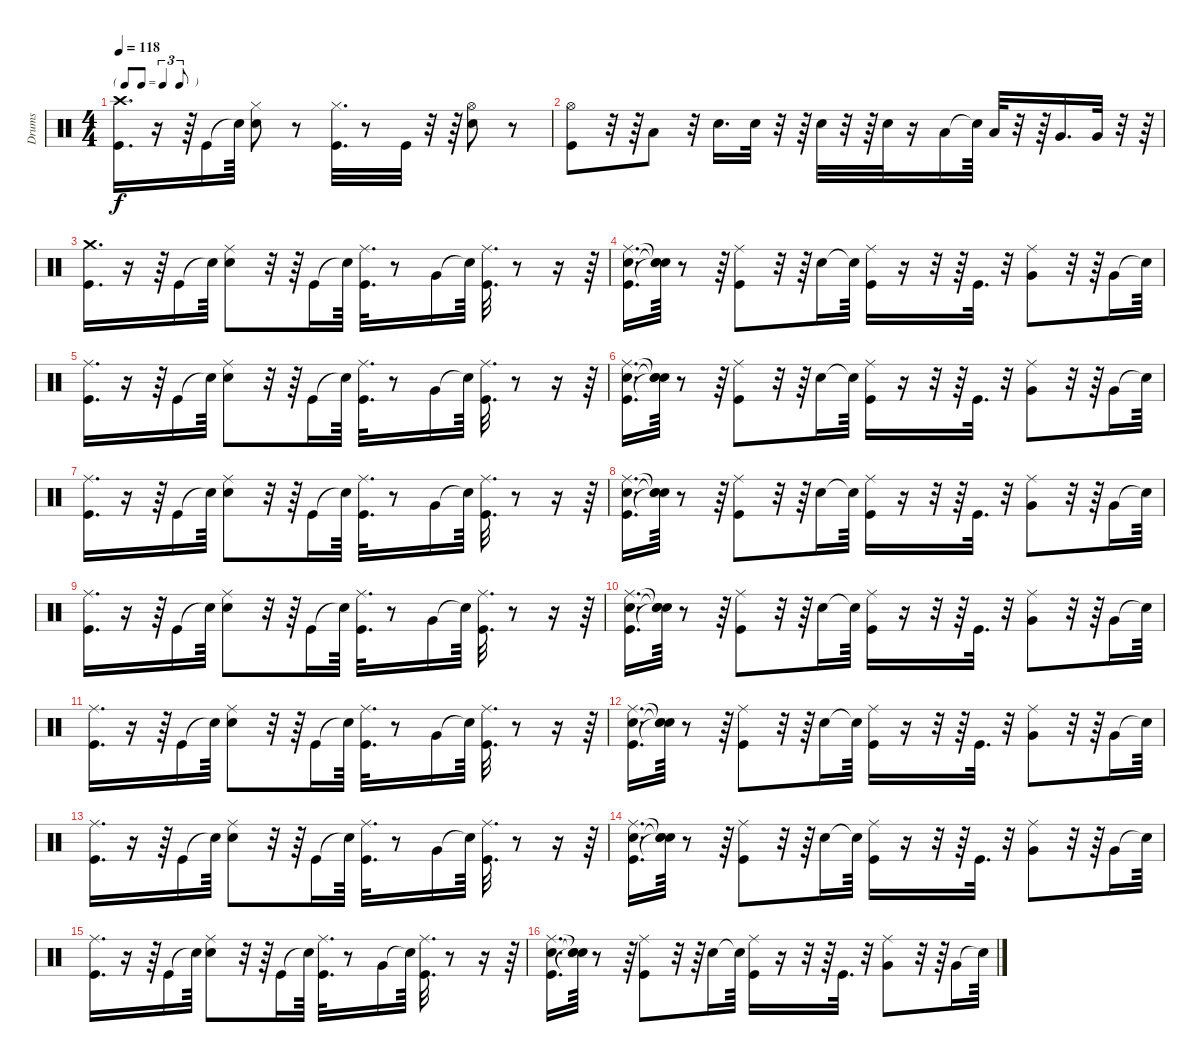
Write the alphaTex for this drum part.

\track ("Drums" "Drums") {instrument percussion}
\staff {score}
\articulation defaults
\ts (4 4)
\tf triplet8th
\tempo 118
\clef neutral
\ks c
("Crash high (hit)" "Kick (hit)").16{d dy f} r.16 r.64 "Kick (hit)".16 "Snare (hit)"{t}.64 ("Hi-Hat (closed)" "Snare (hit) 2").8 r.8 ("Hi-Hat (closed)" "Kick (hit)").32{d} r.8 "Kick (hit)".32 r.32 r.64 ("Hi-Hat (open)" "Snare (hit) 2").8 r.8 |
("Kick (hit)" "Hi-Hat (open)").8 r.32 r.64 "Low Tom (hit)".8 r.32 "Snare (hit) 2".16{d} "Snare (hit) 2".32 r.32 r.64 "Snare (hit) 2".32 r.32 r.64 "Snare (hit) 2".32 r.16 "Low Tom (hit)".16 "Snare (hit)"{t}.64 "Low Tom (hit)".32 r.32 r.64 "Very Low Tom (hit)".16{d} "Very Low Tom (hit)".32 r.32 r.64 |
("Crash medium (hit)" "Kick (hit)").16{d} r.16 r.64 "Kick (hit)".16 "Snare (hit)"{t}.64 ("Snare (hit) 2" "Ride (middle)").8 r.32 r.64 "Kick (hit)".16 "Snare (hit)"{t}.64 ("Ride (middle)" "Kick (hit)").32{d} r.8 "Very Low Tom (hit)".16 "Snare (hit)"{t}.64 ("Ride (middle)" "Kick (hit)").32{d} r.8 r.16 r.64 |
("Kick (hit)" "Ride (middle)" "Snare (hit) 2").16{d} ("Snare (hit)"{t} "Snare (hit)"{t} "Snare (hit)"{t}).64 r.8 r.64 ("Kick (hit)" "Ride (middle)").8 r.32 r.64 "Snare (hit) 2".16 "Snare (hit)"{t}.64 ("Kick (hit)" "Ride (middle)").16 r.16 r.32 r.64 "Kick (hit)".32{d} r.32 ("Ride (middle)" "Very Low Tom (hit)").8 r.32 r.64 "Very Low Tom (hit)".16 "Snare (hit)"{t}.64 |
("Kick (hit)" "Ride (middle)").16{d} r.16 r.64 "Kick (hit)".16 "Snare (hit)"{t}.64 ("Snare (hit) 2" "Ride (middle)").8 r.32 r.64 "Kick (hit)".16 "Snare (hit)"{t}.64 ("Ride (middle)" "Kick (hit)").32{d} r.8 "Very Low Tom (hit)".16 "Snare (hit)"{t}.64 ("Kick (hit)" "Ride (middle)").32{d} r.8 r.16 r.64 |
("Ride (middle)" "Kick (hit)" "Snare (hit) 2").16{d} ("Snare (hit)"{t} "Snare (hit)"{t} "Snare (hit)"{t}).64 r.8 r.64 ("Ride (middle)" "Kick (hit)").8 r.32 r.64 "Snare (hit) 2".16 "Snare (hit)"{t}.64 ("Kick (hit)" "Ride (middle)").16 r.16 r.32 r.64 "Kick (hit)".32{d} r.32 ("Ride (middle)" "Very Low Tom (hit)").8 r.32 r.64 "Very Low Tom (hit)".16 "Snare (hit)"{t}.64 |
("Kick (hit)" "Ride (middle)").16{d} r.16 r.64 "Kick (hit)".16 "Snare (hit)"{t}.64 ("Snare (hit) 2" "Ride (middle)").8 r.32 r.64 "Kick (hit)".16 "Snare (hit)"{t}.64 ("Ride (middle)" "Kick (hit)").32{d} r.8 "Very Low Tom (hit)".16 "Snare (hit)"{t}.64 ("Kick (hit)" "Ride (middle)").32{d} r.8 r.16 r.64 |
("Snare (hit) 2" "Ride (middle)" "Kick (hit)").16{d} ("Snare (hit)"{t} "Snare (hit)"{t} "Snare (hit)"{t}).64 r.8 r.64 ("Kick (hit)" "Ride (middle)").8 r.32 r.64 "Snare (hit) 2".16 "Snare (hit)"{t}.64 ("Kick (hit)" "Ride (middle)").16 r.16 r.32 r.64 "Kick (hit)".32{d} r.32 ("Ride (middle)" "Very Low Tom (hit)").8 r.32 r.64 "Very Low Tom (hit)".16 "Snare (hit)"{t}.64 |
("Kick (hit)" "Ride (middle)").16{d} r.16 r.64 "Kick (hit)".16 "Snare (hit)"{t}.64 ("Ride (middle)" "Snare (hit) 2").8 r.32 r.64 "Kick (hit)".16 "Snare (hit)"{t}.64 ("Ride (middle)" "Kick (hit)").32{d} r.8 "Very Low Tom (hit)".16 "Snare (hit)"{t}.64 ("Ride (middle)" "Kick (hit)").32{d} r.8 r.16 r.64 |
("Kick (hit)" "Ride (middle)" "Snare (hit) 2").16{d} ("Snare (hit)"{t} "Snare (hit)"{t} "Snare (hit)"{t}).64 r.8 r.64 ("Ride (middle)" "Kick (hit)").8 r.32 r.64 "Snare (hit) 2".16 "Snare (hit)"{t}.64 ("Ride (middle)" "Kick (hit)").16 r.16 r.32 r.64 "Kick (hit)".32{d} r.32 ("Ride (middle)" "Very Low Tom (hit)").8 r.32 r.64 "Very Low Tom (hit)".16 "Snare (hit)"{t}.64 |
("Ride (middle)" "Kick (hit)").16{d} r.16 r.64 "Kick (hit)".16 "Snare (hit)"{t}.64 ("Snare (hit) 2" "Ride (middle)").8 r.32 r.64 "Kick (hit)".16 "Snare (hit)"{t}.64 ("Ride (middle)" "Kick (hit)").32{d} r.8 "Very Low Tom (hit)".16 "Snare (hit)"{t}.64 ("Kick (hit)" "Ride (middle)").32{d} r.8 r.16 r.64 |
("Ride (middle)" "Snare (hit) 2" "Kick (hit)").16{d} ("Snare (hit)"{t} "Snare (hit)"{t} "Snare (hit)"{t}).64 r.8 r.64 ("Ride (middle)" "Kick (hit)").8 r.32 r.64 "Snare (hit) 2".16 "Snare (hit)"{t}.64 ("Kick (hit)" "Ride (middle)").16 r.16 r.32 r.64 "Kick (hit)".32{d} r.32 ("Ride (middle)" "Very Low Tom (hit)").8 r.32 r.64 "Very Low Tom (hit)".16 "Snare (hit)"{t}.64 |
("Kick (hit)" "Ride (middle)").16{d} r.16 r.64 "Kick (hit)".16 "Snare (hit)"{t}.64 ("Snare (hit) 2" "Ride (middle)").8 r.32 r.64 "Kick (hit)".16 "Snare (hit)"{t}.64 ("Kick (hit)" "Ride (middle)").32{d} r.8 "Very Low Tom (hit)".16 "Snare (hit)"{t}.64 ("Kick (hit)" "Ride (middle)").32{d} r.8 r.16 r.64 |
("Ride (middle)" "Kick (hit)" "Snare (hit) 2").16{d} ("Snare (hit)"{t} "Snare (hit)"{t} "Snare (hit)"{t}).64 r.8 r.64 ("Kick (hit)" "Ride (middle)").8 r.32 r.64 "Snare (hit) 2".16 "Snare (hit)"{t}.64 ("Kick (hit)" "Ride (middle)").16 r.16 r.32 r.64 "Kick (hit)".32{d} r.32 ("Ride (middle)" "Very Low Tom (hit)").8 r.32 r.64 "Very Low Tom (hit)".16 "Snare (hit)"{t}.64 |
("Ride (middle)" "Kick (hit)").16{d} r.16 r.64 "Kick (hit)".16 "Snare (hit)"{t}.64 ("Ride (middle)" "Snare (hit) 2").8 r.32 r.64 "Kick (hit)".16 "Snare (hit)"{t}.64 ("Kick (hit)" "Ride (middle)").32{d} r.8 "Very Low Tom (hit)".16 "Snare (hit)"{t}.64 ("Ride (middle)" "Kick (hit)").32{d} r.8 r.16 r.64 |
("Kick (hit)" "Snare (hit) 2" "Ride (middle)").16{d} ("Snare (hit)"{t} "Snare (hit)"{t} "Snare (hit)"{t}).64 r.8 r.64 ("Ride (middle)" "Kick (hit)").8 r.32 r.64 "Snare (hit) 2".16 "Snare (hit)"{t}.64 ("Ride (middle)" "Kick (hit)").16 r.16 r.32 r.64 "Kick (hit)".32{d} r.32 ("Ride (middle)" "Very Low Tom (hit)").8 r.32 r.64 "Very Low Tom (hit)".16 "Snare (hit)"{t}.64
